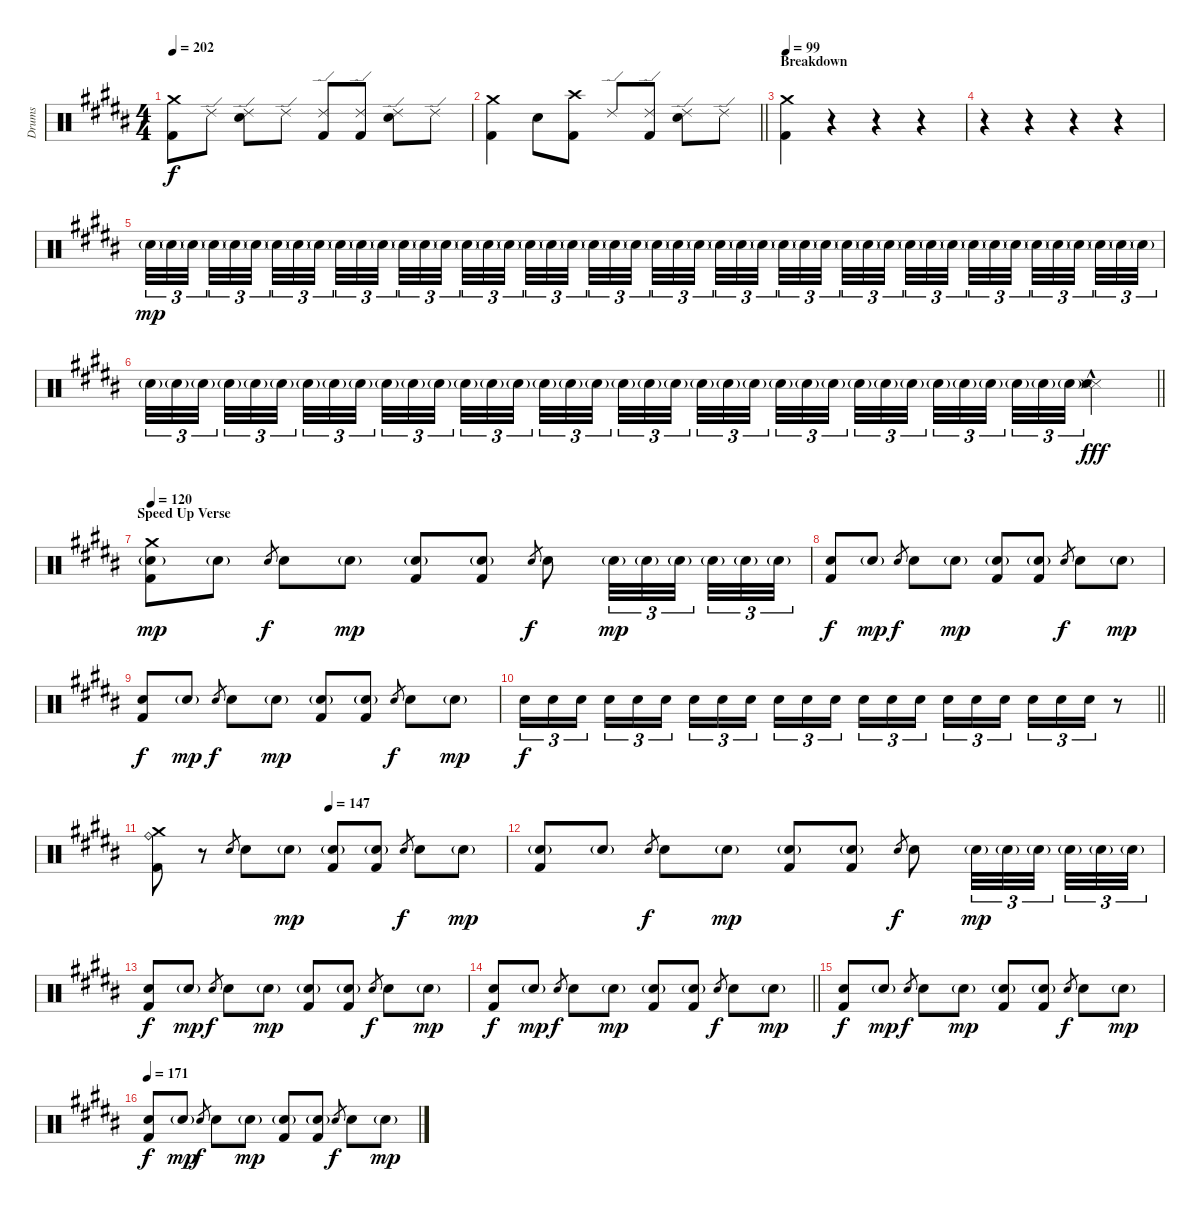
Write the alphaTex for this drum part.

\track ("Drums" "Drums") {instrument percussion}
\staff {score}
\articulation defaults
\ts (4 4)
\tempo 202
\clef neutral
\ks g#minor
("Crash medium (hit)" "Kick (hit) 2").8{dy f} "Ride (edge) 2".8 ("Ride (edge) 2" "Electric Snare (hit)").8 "Ride (edge) 2".8 ("Ride (edge) 2" "Kick (hit) 2").8 ("Ride (edge) 2" "Kick (hit) 2").8 ("Ride (edge) 2" "Electric Snare (hit)").8 "Ride (edge) 2".8 |
\barLineRight lightlight
("Crash medium (hit)" "Kick (hit) 2").4 "Electric Snare (hit)".8 ("Crash high (hit)" "Kick (hit) 2").8 "Ride (edge) 2".8 ("Ride (edge) 2" "Kick (hit) 2").8 ("Ride (edge) 2" "Electric Snare (hit)").8 "Ride (edge) 2".8 |
\section ("" "Breakdown")
\tempo 99
("Crash medium (hit)" "Kick (hit) 2").4 r.4 r.4 r.4 |
r.4 r.4 r.4 r.4 |
"Electric Snare (hit)"{g}.32{tu (3 2) dy mp} "Electric Snare (hit)"{g}.32{tu (3 2)} "Electric Snare (hit)"{g}.32{tu (3 2) beam splitsecondary} "Electric Snare (hit)"{g}.32{tu (3 2)} "Electric Snare (hit)"{g}.32{tu (3 2)} "Electric Snare (hit)"{g}.32{tu (3 2) beam splitsecondary} "Electric Snare (hit)"{g}.32{tu (3 2)} "Electric Snare (hit)"{g}.32{tu (3 2)} "Electric Snare (hit)"{g}.32{tu (3 2) beam splitsecondary} "Electric Snare (hit)"{g}.32{tu (3 2)} "Electric Snare (hit)"{g}.32{tu (3 2)} "Electric Snare (hit)"{g}.32{tu (3 2)} "Electric Snare (hit)"{g}.32{tu (3 2)} "Electric Snare (hit)"{g}.32{tu (3 2)} "Electric Snare (hit)"{g}.32{tu (3 2) beam splitsecondary} "Electric Snare (hit)"{g}.32{tu (3 2)} "Electric Snare (hit)"{g}.32{tu (3 2)} "Electric Snare (hit)"{g}.32{tu (3 2) beam splitsecondary} "Electric Snare (hit)"{g}.32{tu (3 2)} "Electric Snare (hit)"{g}.32{tu (3 2)} "Electric Snare (hit)"{g}.32{tu (3 2) beam splitsecondary} "Electric Snare (hit)"{g}.32{tu (3 2)} "Electric Snare (hit)"{g}.32{tu (3 2)} "Electric Snare (hit)"{g}.32{tu (3 2)} "Electric Snare (hit)"{g}.32{tu (3 2)} "Electric Snare (hit)"{g}.32{tu (3 2)} "Electric Snare (hit)"{g}.32{tu (3 2) beam splitsecondary} "Electric Snare (hit)"{g}.32{tu (3 2)} "Electric Snare (hit)"{g}.32{tu (3 2)} "Electric Snare (hit)"{g}.32{tu (3 2) beam splitsecondary} "Electric Snare (hit)"{g}.32{tu (3 2)} "Electric Snare (hit)"{g}.32{tu (3 2)} "Electric Snare (hit)"{g}.32{tu (3 2) beam splitsecondary} "Electric Snare (hit)"{g}.32{tu (3 2)} "Electric Snare (hit)"{g}.32{tu (3 2)} "Electric Snare (hit)"{g}.32{tu (3 2)} "Electric Snare (hit)"{g}.32{tu (3 2)} "Electric Snare (hit)"{g}.32{tu (3 2)} "Electric Snare (hit)"{g}.32{tu (3 2) beam splitsecondary} "Electric Snare (hit)"{g}.32{tu (3 2)} "Electric Snare (hit)"{g}.32{tu (3 2)} "Electric Snare (hit)"{g}.32{tu (3 2) beam splitsecondary} "Electric Snare (hit)"{g}.32{tu (3 2)} "Electric Snare (hit)"{g}.32{tu (3 2)} "Electric Snare (hit)"{g}.32{tu (3 2) beam splitsecondary} "Electric Snare (hit)"{g}.32{tu (3 2)} "Electric Snare (hit)"{g}.32{tu (3 2)} "Electric Snare (hit)"{g}.32{tu (3 2)} |
\barLineRight lightlight "Electric Snare (hit)"{g}.32{tu (3 2)} "Electric Snare (hit)"{g}.32{tu (3 2)} "Electric Snare (hit)"{g}.32{tu (3 2) beam splitsecondary} "Electric Snare (hit)"{g}.32{tu (3 2)} "Electric Snare (hit)"{g}.32{tu (3 2)} "Electric Snare (hit)"{g}.32{tu (3 2) beam splitsecondary} "Electric Snare (hit)"{g}.32{tu (3 2)} "Electric Snare (hit)"{g}.32{tu (3 2)} "Electric Snare (hit)"{g}.32{tu (3 2) beam splitsecondary} "Electric Snare (hit)"{g}.32{tu (3 2)} "Electric Snare (hit)"{g}.32{tu (3 2)} "Electric Snare (hit)"{g}.32{tu (3 2)} "Electric Snare (hit)"{g}.32{tu (3 2)} "Electric Snare (hit)"{g}.32{tu (3 2)} "Electric Snare (hit)"{g}.32{tu (3 2) beam splitsecondary} "Electric Snare (hit)"{g}.32{tu (3 2)} "Electric Snare (hit)"{g}.32{tu (3 2)} "Electric Snare (hit)"{g}.32{tu (3 2) beam splitsecondary} "Electric Snare (hit)"{g}.32{tu (3 2)} "Electric Snare (hit)"{g}.32{tu (3 2)} "Electric Snare (hit)"{g}.32{tu (3 2) beam splitsecondary} "Electric Snare (hit)"{g}.32{tu (3 2)} "Electric Snare (hit)"{g}.32{tu (3 2)} "Electric Snare (hit)"{g}.32{tu (3 2)} "Electric Snare (hit)"{g}.32{tu (3 2)} "Electric Snare (hit)"{g}.32{tu (3 2)} "Electric Snare (hit)"{g}.32{tu (3 2) beam splitsecondary} "Electric Snare (hit)"{g}.32{tu (3 2)} "Electric Snare (hit)"{g}.32{tu (3 2)} "Electric Snare (hit)"{g}.32{tu (3 2) beam splitsecondary} "Electric Snare (hit)"{g}.32{tu (3 2)} "Electric Snare (hit)"{g}.32{tu (3 2)} "Electric Snare (hit)"{g}.32{tu (3 2) beam splitsecondary} "Electric Snare (hit)"{g}.32{tu (3 2)} "Electric Snare (hit)"{g}.32{tu (3 2)} "Electric Snare (hit)"{g}.32{tu (3 2)}
("Snare (side stick) 3"{hac} "Snare (side stick) 3"{hac} "Snare (side stick) 3"{hac} "Electric Snare (hit)"{hac}).4{dy fff} |
\section ("" "Speed Up Verse")
\tempo 120
("Crash medium (hit)" "Electric Snare (hit)"{g} "Kick (hit) 2").8{dy mp} "Electric Snare (hit)"{g}.8 "Electric Snare (hit)".8{gr dy f} "Electric Snare (hit)".8 "Electric Snare (hit)"{g}.8{dy mp} ("Electric Snare (hit)"{g} "Kick (hit) 2").8 ("Electric Snare (hit)"{g} "Kick (hit) 2").8 "Electric Snare (hit)".8{gr dy f} "Electric Snare (hit)".8 "Electric Snare (hit)"{g}.32{tu (3 2) dy mp} "Electric Snare (hit)"{g}.32{tu (3 2)} "Electric Snare (hit)"{g}.32{tu (3 2) beam splitsecondary} "Electric Snare (hit)"{g}.32{tu (3 2)} "Electric Snare (hit)"{g}.32{tu (3 2)} "Electric Snare (hit)"{g}.32{tu (3 2)} |
("Electric Snare (hit)" "Kick (hit) 2").8{dy f} "Electric Snare (hit)"{g}.8{dy mp} "Electric Snare (hit)".8{gr dy f} "Electric Snare (hit)".8 "Electric Snare (hit)"{g}.8{dy mp} ("Electric Snare (hit)"{g} "Kick (hit) 2").8 ("Electric Snare (hit)"{g} "Kick (hit) 2").8 "Electric Snare (hit)".8{gr dy f} "Electric Snare (hit)".8 "Electric Snare (hit)"{g}.8{dy mp} |
("Electric Snare (hit)" "Kick (hit) 2").8{dy f} "Electric Snare (hit)"{g}.8{dy mp} "Electric Snare (hit)".8{gr dy f} "Electric Snare (hit)".8 "Electric Snare (hit)"{g}.8{dy mp} ("Electric Snare (hit)"{g} "Kick (hit) 2").8 ("Electric Snare (hit)"{g} "Kick (hit) 2").8 "Electric Snare (hit)".8{gr dy f} "Electric Snare (hit)".8 "Electric Snare (hit)"{g}.8{dy mp} |
\barLineRight lightlight "Electric Snare (hit)".16{tu (3 2) dy f} "Electric Snare (hit)".16{tu (3 2)} "Electric Snare (hit)".16{tu (3 2) beam splitsecondary} "Electric Snare (hit)".16{tu (3 2)} "Electric Snare (hit)".16{tu (3 2)} "Electric Snare (hit)".16{tu (3 2)} "Electric Snare (hit)".16{tu (3 2)} "Electric Snare (hit)".16{tu (3 2)} "Electric Snare (hit)".16{tu (3 2) beam splitsecondary} "Electric Snare (hit)".16{tu (3 2)} "Electric Snare (hit)".16{tu (3 2)} "Electric Snare (hit)".16{tu (3 2)} "Electric Snare (hit)".16{tu (3 2)} "Electric Snare (hit)".16{tu (3 2)} "Electric Snare (hit)".16{tu (3 2) beam splitsecondary} "Electric Snare (hit)".16{tu (3 2)} "Electric Snare (hit)".16{tu (3 2)} "Electric Snare (hit)".16{tu (3 2)} "Electric Snare (hit)".16{tu (3 2)} "Electric Snare (hit)".16{tu (3 2)} "Electric Snare (hit)".16{tu (3 2)}
r.8 |
\tempo (147 0.5)
("Crash medium (hit)" "Ride (bell)" "Kick (hit) 2").8 r.8{volume 0} "Electric Snare (hit)".8{gr} "Electric Snare (hit)".8{volume 13} "Electric Snare (hit)"{g}.8{dy mp} ("Electric Snare (hit)"{g} "Kick (hit) 2").8 ("Electric Snare (hit)"{g} "Kick (hit) 2").8 "Electric Snare (hit)".8{gr dy f} "Electric Snare (hit)".8 "Electric Snare (hit)"{g}.8{dy mp} |
("Electric Snare (hit)"{g} "Kick (hit) 2").8 "Electric Snare (hit)"{g}.8 "Electric Snare (hit)".8{gr dy f} "Electric Snare (hit)".8 "Electric Snare (hit)"{g}.8{dy mp} ("Electric Snare (hit)"{g} "Kick (hit) 2").8 ("Electric Snare (hit)"{g} "Kick (hit) 2").8 "Electric Snare (hit)".8{gr dy f} "Electric Snare (hit)".8 "Electric Snare (hit)"{g}.32{tu (3 2) dy mp} "Electric Snare (hit)"{g}.32{tu (3 2)} "Electric Snare (hit)"{g}.32{tu (3 2) beam splitsecondary} "Electric Snare (hit)"{g}.32{tu (3 2)} "Electric Snare (hit)"{g}.32{tu (3 2)} "Electric Snare (hit)"{g}.32{tu (3 2)} |
("Electric Snare (hit)" "Kick (hit) 2").8{dy f} "Electric Snare (hit)"{g}.8{dy mp} "Electric Snare (hit)".8{gr dy f} "Electric Snare (hit)".8 "Electric Snare (hit)"{g}.8{dy mp} ("Electric Snare (hit)"{g} "Kick (hit) 2").8 ("Electric Snare (hit)"{g} "Kick (hit) 2").8 "Electric Snare (hit)".8{gr dy f} "Electric Snare (hit)".8 "Electric Snare (hit)"{g}.8{dy mp} |
\barLineRight lightlight
("Electric Snare (hit)" "Kick (hit) 2").8{dy f} "Electric Snare (hit)"{g}.8{dy mp} "Electric Snare (hit)".8{gr dy f} "Electric Snare (hit)".8 "Electric Snare (hit)"{g}.8{dy mp} ("Electric Snare (hit)"{g} "Kick (hit) 2").8 ("Electric Snare (hit)"{g} "Kick (hit) 2").8 "Electric Snare (hit)".8{gr dy f} "Electric Snare (hit)".8 "Electric Snare (hit)"{g}.8{dy mp} |
("Electric Snare (hit)" "Kick (hit) 2").8{dy f} "Electric Snare (hit)"{g}.8{dy mp} "Electric Snare (hit)".8{gr dy f} "Electric Snare (hit)".8 "Electric Snare (hit)"{g}.8{dy mp} ("Electric Snare (hit)"{g} "Kick (hit) 2").8 ("Electric Snare (hit)"{g} "Kick (hit) 2").8 "Electric Snare (hit)".8{gr dy f} "Electric Snare (hit)".8 "Electric Snare (hit)"{g}.8{dy mp} |
\tempo 171
("Electric Snare (hit)" "Kick (hit) 2").8{dy f} "Electric Snare (hit)"{g}.8{dy mp} "Electric Snare (hit)".8{gr dy f} "Electric Snare (hit)".8 "Electric Snare (hit)"{g}.8{dy mp} ("Electric Snare (hit)"{g} "Kick (hit) 2").8 ("Electric Snare (hit)"{g} "Kick (hit) 2").8 "Electric Snare (hit)".8{gr dy f} "Electric Snare (hit)".8 "Electric Snare (hit)"{g}.8{dy mp}
